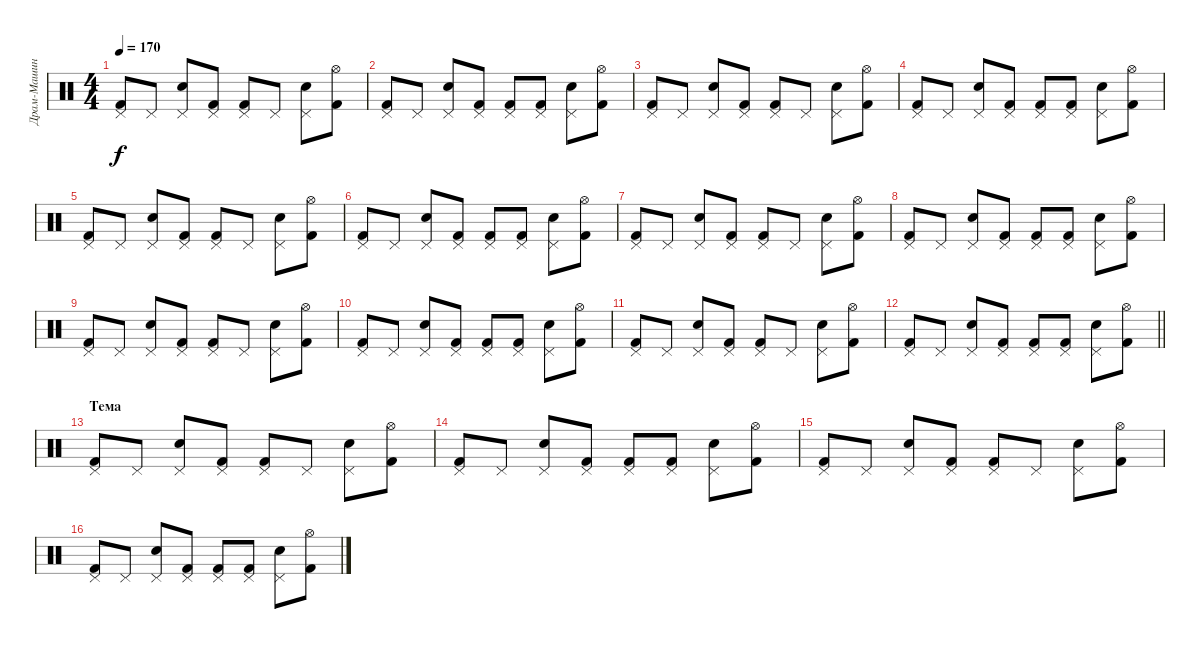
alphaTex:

\track ("Драм-Машина" "Драм-Машин") {instrument percussion}
\staff {score}
\articulation defaults
\ts (4 4)
\tempo 170
\clef neutral
\ks c
("Pedal Hi-Hat (hit)" "Kick (hit) 2").8{dy f} "Pedal Hi-Hat (hit)".8 ("Pedal Hi-Hat (hit)" "Electric Snare (hit)").8 ("Pedal Hi-Hat (hit)" "Kick (hit) 2").8 ("Pedal Hi-Hat (hit)" "Kick (hit) 2").8 "Pedal Hi-Hat (hit)".8 ("Pedal Hi-Hat (hit)" "Electric Snare (hit)").8 ("Hi-Hat (open)" "Kick (hit) 2").8 |
("Pedal Hi-Hat (hit)" "Kick (hit) 2").8 "Pedal Hi-Hat (hit)".8 ("Pedal Hi-Hat (hit)" "Electric Snare (hit)").8 ("Pedal Hi-Hat (hit)" "Kick (hit) 2").8 ("Pedal Hi-Hat (hit)" "Kick (hit) 2").8 ("Pedal Hi-Hat (hit)" "Kick (hit) 2").8 ("Pedal Hi-Hat (hit)" "Electric Snare (hit)").8 ("Hi-Hat (open)" "Kick (hit) 2").8 |
("Pedal Hi-Hat (hit)" "Kick (hit) 2").8 "Pedal Hi-Hat (hit)".8 ("Pedal Hi-Hat (hit)" "Electric Snare (hit)").8 ("Pedal Hi-Hat (hit)" "Kick (hit) 2").8 ("Pedal Hi-Hat (hit)" "Kick (hit) 2").8 "Pedal Hi-Hat (hit)".8 ("Pedal Hi-Hat (hit)" "Electric Snare (hit)").8 ("Hi-Hat (open)" "Kick (hit) 2").8 |
("Pedal Hi-Hat (hit)" "Kick (hit) 2").8 "Pedal Hi-Hat (hit)".8 ("Pedal Hi-Hat (hit)" "Electric Snare (hit)").8 ("Pedal Hi-Hat (hit)" "Kick (hit) 2").8 ("Pedal Hi-Hat (hit)" "Kick (hit) 2").8 ("Pedal Hi-Hat (hit)" "Kick (hit) 2").8 ("Pedal Hi-Hat (hit)" "Electric Snare (hit)").8 ("Hi-Hat (open)" "Kick (hit) 2").8 |
("Pedal Hi-Hat (hit)" "Kick (hit) 2").8 "Pedal Hi-Hat (hit)".8 ("Pedal Hi-Hat (hit)" "Electric Snare (hit)").8 ("Pedal Hi-Hat (hit)" "Kick (hit) 2").8 ("Pedal Hi-Hat (hit)" "Kick (hit) 2").8 "Pedal Hi-Hat (hit)".8 ("Pedal Hi-Hat (hit)" "Electric Snare (hit)").8 ("Hi-Hat (open)" "Kick (hit) 2").8 |
("Pedal Hi-Hat (hit)" "Kick (hit) 2").8 "Pedal Hi-Hat (hit)".8 ("Pedal Hi-Hat (hit)" "Electric Snare (hit)").8 ("Pedal Hi-Hat (hit)" "Kick (hit) 2").8 ("Pedal Hi-Hat (hit)" "Kick (hit) 2").8 ("Pedal Hi-Hat (hit)" "Kick (hit) 2").8 ("Pedal Hi-Hat (hit)" "Electric Snare (hit)").8 ("Hi-Hat (open)" "Kick (hit) 2").8 |
("Pedal Hi-Hat (hit)" "Kick (hit) 2").8 "Pedal Hi-Hat (hit)".8 ("Pedal Hi-Hat (hit)" "Electric Snare (hit)").8 ("Pedal Hi-Hat (hit)" "Kick (hit) 2").8 ("Pedal Hi-Hat (hit)" "Kick (hit) 2").8 "Pedal Hi-Hat (hit)".8 ("Pedal Hi-Hat (hit)" "Electric Snare (hit)").8 ("Hi-Hat (open)" "Kick (hit) 2").8 |
("Pedal Hi-Hat (hit)" "Kick (hit) 2").8 "Pedal Hi-Hat (hit)".8 ("Pedal Hi-Hat (hit)" "Electric Snare (hit)").8 ("Pedal Hi-Hat (hit)" "Kick (hit) 2").8 ("Pedal Hi-Hat (hit)" "Kick (hit) 2").8 ("Pedal Hi-Hat (hit)" "Kick (hit) 2").8 ("Pedal Hi-Hat (hit)" "Electric Snare (hit)").8 ("Hi-Hat (open)" "Kick (hit) 2").8 |
("Pedal Hi-Hat (hit)" "Kick (hit) 2").8 "Pedal Hi-Hat (hit)".8 ("Pedal Hi-Hat (hit)" "Electric Snare (hit)").8 ("Pedal Hi-Hat (hit)" "Kick (hit) 2").8 ("Pedal Hi-Hat (hit)" "Kick (hit) 2").8 "Pedal Hi-Hat (hit)".8 ("Pedal Hi-Hat (hit)" "Electric Snare (hit)").8 ("Hi-Hat (open)" "Kick (hit) 2").8 |
("Pedal Hi-Hat (hit)" "Kick (hit) 2").8 "Pedal Hi-Hat (hit)".8 ("Pedal Hi-Hat (hit)" "Electric Snare (hit)").8 ("Pedal Hi-Hat (hit)" "Kick (hit) 2").8 ("Pedal Hi-Hat (hit)" "Kick (hit) 2").8 ("Pedal Hi-Hat (hit)" "Kick (hit) 2").8 ("Pedal Hi-Hat (hit)" "Electric Snare (hit)").8 ("Hi-Hat (open)" "Kick (hit) 2").8 |
("Pedal Hi-Hat (hit)" "Kick (hit) 2").8 "Pedal Hi-Hat (hit)".8 ("Pedal Hi-Hat (hit)" "Electric Snare (hit)").8 ("Pedal Hi-Hat (hit)" "Kick (hit) 2").8 ("Pedal Hi-Hat (hit)" "Kick (hit) 2").8 "Pedal Hi-Hat (hit)".8 ("Pedal Hi-Hat (hit)" "Electric Snare (hit)").8 ("Hi-Hat (open)" "Kick (hit) 2").8 |
\barLineRight lightlight
("Pedal Hi-Hat (hit)" "Kick (hit) 2").8 "Pedal Hi-Hat (hit)".8 ("Pedal Hi-Hat (hit)" "Electric Snare (hit)").8 ("Pedal Hi-Hat (hit)" "Kick (hit) 2").8 ("Pedal Hi-Hat (hit)" "Kick (hit) 2").8 ("Pedal Hi-Hat (hit)" "Kick (hit) 2").8 ("Pedal Hi-Hat (hit)" "Electric Snare (hit)").8 ("Hi-Hat (open)" "Kick (hit) 2").8 |
\section ("" "Тема")
("Pedal Hi-Hat (hit)" "Kick (hit) 2").8 "Pedal Hi-Hat (hit)".8 ("Pedal Hi-Hat (hit)" "Electric Snare (hit)").8 ("Pedal Hi-Hat (hit)" "Kick (hit) 2").8 ("Pedal Hi-Hat (hit)" "Kick (hit) 2").8 "Pedal Hi-Hat (hit)".8 ("Pedal Hi-Hat (hit)" "Electric Snare (hit)").8 ("Hi-Hat (open)" "Kick (hit) 2").8 |
("Pedal Hi-Hat (hit)" "Kick (hit) 2").8 "Pedal Hi-Hat (hit)".8 ("Pedal Hi-Hat (hit)" "Electric Snare (hit)").8 ("Pedal Hi-Hat (hit)" "Kick (hit) 2").8 ("Pedal Hi-Hat (hit)" "Kick (hit) 2").8 ("Pedal Hi-Hat (hit)" "Kick (hit) 2").8 ("Pedal Hi-Hat (hit)" "Electric Snare (hit)").8 ("Hi-Hat (open)" "Kick (hit) 2").8 |
("Pedal Hi-Hat (hit)" "Kick (hit) 2").8 "Pedal Hi-Hat (hit)".8 ("Pedal Hi-Hat (hit)" "Electric Snare (hit)").8 ("Pedal Hi-Hat (hit)" "Kick (hit) 2").8 ("Pedal Hi-Hat (hit)" "Kick (hit) 2").8 "Pedal Hi-Hat (hit)".8 ("Pedal Hi-Hat (hit)" "Electric Snare (hit)").8 ("Hi-Hat (open)" "Kick (hit) 2").8 |
("Pedal Hi-Hat (hit)" "Kick (hit) 2").8 "Pedal Hi-Hat (hit)".8 ("Pedal Hi-Hat (hit)" "Electric Snare (hit)").8 ("Pedal Hi-Hat (hit)" "Kick (hit) 2").8 ("Pedal Hi-Hat (hit)" "Kick (hit) 2").8 ("Pedal Hi-Hat (hit)" "Kick (hit) 2").8 ("Pedal Hi-Hat (hit)" "Electric Snare (hit)").8 ("Hi-Hat (open)" "Kick (hit) 2").8
